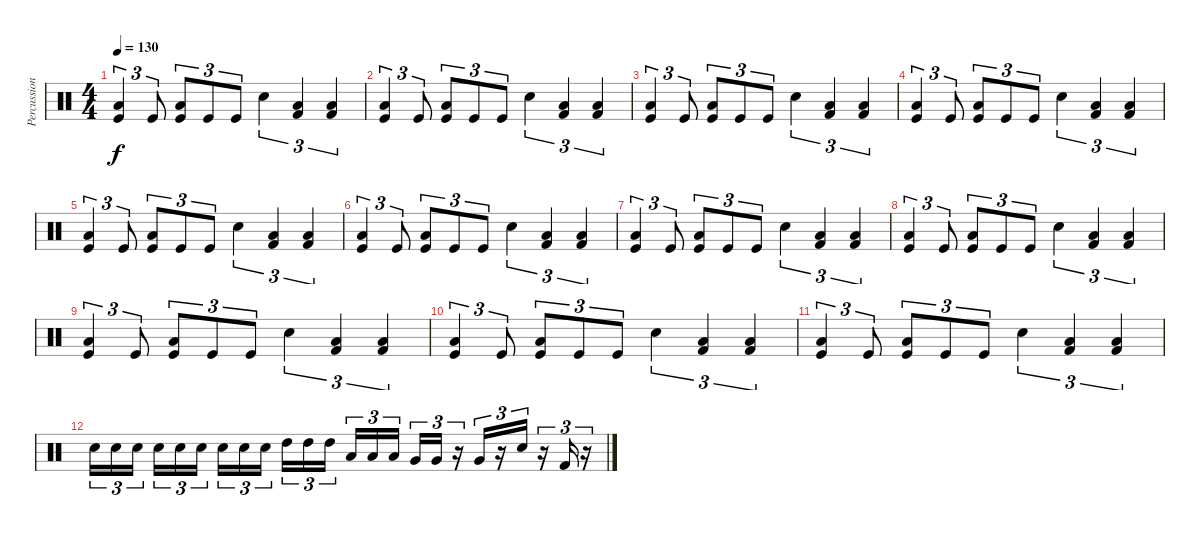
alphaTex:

\track ("Percussion" "Percussion") {instrument percussion}
\staff {score}
\articulation defaults
\ts (4 4)
\tempo 130
\clef neutral
\ks c
("Kick (hit)" "Low Floor Tom (hit)").4{tu (3 2) dy f} "Kick (hit)".8{tu (3 2)} ("Kick (hit)" "Low Tom (hit)").8{tu (3 2)} "Kick (hit)".8{tu (3 2)} "Kick (hit)".8{tu (3 2)} "Snare (hit) 2".4{tu (3 2)} ("Kick (hit) 2" "Low Floor Tom (hit)").4{tu (3 2)} ("Kick (hit) 2" "Low Floor Tom (hit)").4{tu (3 2)} |
("Kick (hit)" "Low Floor Tom (hit)").4{tu (3 2)} "Kick (hit)".8{tu (3 2)} ("Kick (hit)" "Low Tom (hit)").8{tu (3 2)} "Kick (hit)".8{tu (3 2)} "Kick (hit)".8{tu (3 2)} "Snare (hit) 2".4{tu (3 2)} ("Kick (hit) 2" "Low Floor Tom (hit)").4{tu (3 2)} ("Kick (hit) 2" "Low Floor Tom (hit)").4{tu (3 2)} |
("Kick (hit)" "Low Floor Tom (hit)").4{tu (3 2)} "Kick (hit)".8{tu (3 2)} ("Kick (hit)" "Low Tom (hit)").8{tu (3 2)} "Kick (hit)".8{tu (3 2)} "Kick (hit)".8{tu (3 2)} "Snare (hit) 2".4{tu (3 2)} ("Kick (hit) 2" "Low Floor Tom (hit)").4{tu (3 2)} ("Kick (hit) 2" "Low Floor Tom (hit)").4{tu (3 2)} |
("Kick (hit)" "Low Floor Tom (hit)").4{tu (3 2)} "Kick (hit)".8{tu (3 2)} ("Kick (hit)" "Low Tom (hit)").8{tu (3 2)} "Kick (hit)".8{tu (3 2)} "Kick (hit)".8{tu (3 2)} "Snare (hit) 2".4{tu (3 2)} ("Kick (hit) 2" "Low Floor Tom (hit)").4{tu (3 2)} ("Kick (hit) 2" "Low Floor Tom (hit)").4{tu (3 2)} |
("Kick (hit)" "Low Floor Tom (hit)").4{tu (3 2)} "Kick (hit)".8{tu (3 2)} ("Kick (hit)" "Low Tom (hit)").8{tu (3 2)} "Kick (hit)".8{tu (3 2)} "Kick (hit)".8{tu (3 2)} "Snare (hit) 2".4{tu (3 2)} ("Kick (hit) 2" "Low Floor Tom (hit)").4{tu (3 2)} ("Kick (hit) 2" "Low Floor Tom (hit)").4{tu (3 2)} |
("Kick (hit)" "Low Floor Tom (hit)").4{tu (3 2)} "Kick (hit)".8{tu (3 2)} ("Kick (hit)" "Low Tom (hit)").8{tu (3 2)} "Kick (hit)".8{tu (3 2)} "Kick (hit)".8{tu (3 2)} "Snare (hit) 2".4{tu (3 2)} ("Kick (hit) 2" "Low Floor Tom (hit)").4{tu (3 2)} ("Kick (hit) 2" "Low Floor Tom (hit)").4{tu (3 2)} |
("Kick (hit)" "Low Floor Tom (hit)").4{tu (3 2)} "Kick (hit)".8{tu (3 2)} ("Kick (hit)" "Low Tom (hit)").8{tu (3 2)} "Kick (hit)".8{tu (3 2)} "Kick (hit)".8{tu (3 2)} "Snare (hit) 2".4{tu (3 2)} ("Kick (hit) 2" "Low Floor Tom (hit)").4{tu (3 2)} ("Kick (hit) 2" "Low Floor Tom (hit)").4{tu (3 2)} |
("Kick (hit)" "Low Floor Tom (hit)").4{tu (3 2)} "Kick (hit)".8{tu (3 2)} ("Kick (hit)" "Low Tom (hit)").8{tu (3 2)} "Kick (hit)".8{tu (3 2)} "Kick (hit)".8{tu (3 2)} "Snare (hit) 2".4{tu (3 2)} ("Kick (hit) 2" "Low Floor Tom (hit)").4{tu (3 2)} ("Kick (hit) 2" "Low Floor Tom (hit)").4{tu (3 2)} |
("Kick (hit)" "Low Floor Tom (hit)").4{tu (3 2)} "Kick (hit)".8{tu (3 2)} ("Kick (hit)" "Low Tom (hit)").8{tu (3 2)} "Kick (hit)".8{tu (3 2)} "Kick (hit)".8{tu (3 2)} "Snare (hit) 2".4{tu (3 2)} ("Kick (hit) 2" "Low Floor Tom (hit)").4{tu (3 2)} ("Kick (hit) 2" "Low Floor Tom (hit)").4{tu (3 2)} |
("Kick (hit)" "Low Floor Tom (hit)").4{tu (3 2)} "Kick (hit)".8{tu (3 2)} ("Kick (hit)" "Low Tom (hit)").8{tu (3 2)} "Kick (hit)".8{tu (3 2)} "Kick (hit)".8{tu (3 2)} "Snare (hit) 2".4{tu (3 2)} ("Kick (hit) 2" "Low Floor Tom (hit)").4{tu (3 2)} ("Kick (hit) 2" "Low Floor Tom (hit)").4{tu (3 2)} |
("Kick (hit)" "Low Floor Tom (hit)").4{tu (3 2)} "Kick (hit)".8{tu (3 2)} ("Kick (hit)" "Low Tom (hit)").8{tu (3 2)} "Kick (hit)".8{tu (3 2)} "Kick (hit)".8{tu (3 2)} "Snare (hit) 2".4{tu (3 2)} ("Kick (hit) 2" "Low Floor Tom (hit)").4{tu (3 2)} ("Kick (hit) 2" "Low Floor Tom (hit)").4{tu (3 2)} |
"Snare (hit) 2".16{tu (3 2)} "Snare (hit) 2".16{tu (3 2)} "Snare (hit) 2".16{tu (3 2) beam splitsecondary} "Snare (hit) 2".16{tu (3 2)} "Snare (hit) 2".16{tu (3 2)} "Snare (hit) 2".16{tu (3 2)} "Snare (hit) 2".16{tu (3 2)} "Snare (hit) 2".16{tu (3 2)} "Snare (hit) 2".16{tu (3 2) beam splitsecondary} "High Tom (hit)".16{tu (3 2)} "High Tom (hit)".16{tu (3 2)} "High Tom (hit)".16{tu (3 2)} "Low Tom (hit)".16{tu (3 2)} "Low Tom (hit)".16{tu (3 2)} "Low Tom (hit)".16{tu (3 2) beam splitsecondary} "Very Low Tom (hit)".16{tu (3 2)} "Very Low Tom (hit)".16{tu (3 2)} r.16{tu (3 2)} "Very Low Tom (hit)".16{tu (3 2)} r.16{tu (3 2)} "Snare (hit) 2".16{tu (3 2)} r.16{tu (3 2)} "Kick (hit) 2".16{tu (3 2)} r.16{tu (3 2)}
